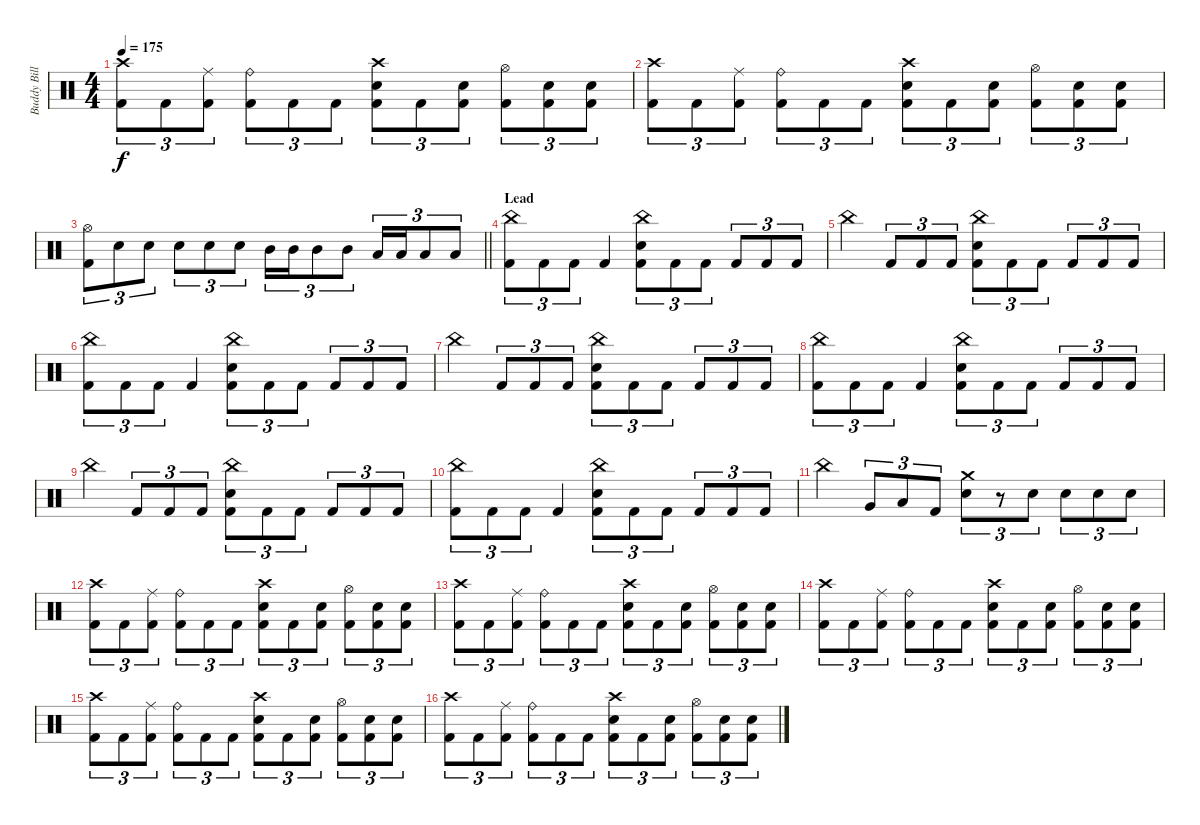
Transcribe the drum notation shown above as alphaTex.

\track ("Buddy Bill" "Buddy Bill") {instrument percussion}
\staff {score}
\articulation defaults
\ts (4 4)
\tempo 175
\clef neutral
\ks c
("Crash high (hit)" "Kick (hit) 2").8{tu (3 2) dy f} "Kick (hit) 2".8{tu (3 2)} ("Ride (middle)" "Kick (hit) 2").8{tu (3 2)} ("Ride (bell)" "Kick (hit) 2").8{tu (3 2)} "Kick (hit) 2".8{tu (3 2)} "Kick (hit) 2".8{tu (3 2)} ("Crash high (hit)" "Snare (hit) 2" "Kick (hit) 2").8{tu (3 2)} "Kick (hit) 2".8{tu (3 2)} ("Snare (hit) 2" "Kick (hit) 2").8{tu (3 2)} ("Hi-Hat (open)" "Kick (hit) 2").8{tu (3 2)} ("Snare (hit) 2" "Kick (hit) 2").8{tu (3 2)} ("Snare (hit) 2" "Kick (hit) 2").8{tu (3 2)} |
("Crash high (hit)" "Kick (hit) 2").8{tu (3 2)} "Kick (hit) 2".8{tu (3 2)} ("Ride (middle)" "Kick (hit) 2").8{tu (3 2)} ("Ride (bell)" "Kick (hit) 2").8{tu (3 2)} "Kick (hit) 2".8{tu (3 2)} "Kick (hit) 2".8{tu (3 2)} ("Crash high (hit)" "Snare (hit) 2" "Kick (hit) 2").8{tu (3 2)} "Kick (hit) 2".8{tu (3 2)} ("Snare (hit) 2" "Kick (hit) 2").8{tu (3 2)} ("Hi-Hat (open)" "Kick (hit) 2").8{tu (3 2)} ("Snare (hit) 2" "Kick (hit) 2").8{tu (3 2)} ("Snare (hit) 2" "Kick (hit) 2").8{tu (3 2)} |
\barLineRight lightlight
("Hi-Hat (open)" "Kick (hit) 2").8{tu (3 2)} "Snare (hit) 2".8{tu (3 2)} "Snare (hit) 2".8{tu (3 2)} "Snare (hit) 2".8{tu (3 2)} "Snare (hit) 2".8{tu (3 2)} "Snare (hit) 2".8{tu (3 2)} "Mid Tom (hit)".16{tu (3 2)} "Mid Tom (hit)".16{tu (3 2)} "Mid Tom (hit)".8{tu (3 2)} "Mid Tom (hit)".8{tu (3 2)} "Low Tom (hit)".16{tu (3 2)} "Low Tom (hit)".16{tu (3 2)} "Low Tom (hit)".8{tu (3 2)} "Low Tom (hit)".8{tu (3 2)} |
\section ("" "Lead")
("China (hit)" "Kick (hit) 2").8{tu (3 2)} "Kick (hit) 2".8{tu (3 2)} "Kick (hit) 2".8{tu (3 2)} "Kick (hit) 2".4 ("China (hit)" "Snare (hit) 2" "Kick (hit) 2").8{tu (3 2)} "Kick (hit) 2".8{tu (3 2)} "Kick (hit) 2".8{tu (3 2)} "Kick (hit) 2".8{tu (3 2)} "Kick (hit) 2".8{tu (3 2)} "Kick (hit) 2".8{tu (3 2)} |
"China (hit)".4 "Kick (hit) 2".8{tu (3 2)} "Kick (hit) 2".8{tu (3 2)} "Kick (hit) 2".8{tu (3 2)} ("China (hit)" "Snare (hit) 2" "Kick (hit) 2").8{tu (3 2)} "Kick (hit) 2".8{tu (3 2)} "Kick (hit) 2".8{tu (3 2)} "Kick (hit) 2".8{tu (3 2)} "Kick (hit) 2".8{tu (3 2)} "Kick (hit) 2".8{tu (3 2)} |
("China (hit)" "Kick (hit) 2").8{tu (3 2)} "Kick (hit) 2".8{tu (3 2)} "Kick (hit) 2".8{tu (3 2)} "Kick (hit) 2".4 ("China (hit)" "Snare (hit) 2" "Kick (hit) 2").8{tu (3 2)} "Kick (hit) 2".8{tu (3 2)} "Kick (hit) 2".8{tu (3 2)} "Kick (hit) 2".8{tu (3 2)} "Kick (hit) 2".8{tu (3 2)} "Kick (hit) 2".8{tu (3 2)} |
"China (hit)".4 "Kick (hit) 2".8{tu (3 2)} "Kick (hit) 2".8{tu (3 2)} "Kick (hit) 2".8{tu (3 2)} ("China (hit)" "Snare (hit) 2" "Kick (hit) 2").8{tu (3 2)} "Kick (hit) 2".8{tu (3 2)} "Kick (hit) 2".8{tu (3 2)} "Kick (hit) 2".8{tu (3 2)} "Kick (hit) 2".8{tu (3 2)} "Kick (hit) 2".8{tu (3 2)} |
("China (hit)" "Kick (hit) 2").8{tu (3 2)} "Kick (hit) 2".8{tu (3 2)} "Kick (hit) 2".8{tu (3 2)} "Kick (hit) 2".4 ("China (hit)" "Snare (hit) 2" "Kick (hit) 2").8{tu (3 2)} "Kick (hit) 2".8{tu (3 2)} "Kick (hit) 2".8{tu (3 2)} "Kick (hit) 2".8{tu (3 2)} "Kick (hit) 2".8{tu (3 2)} "Kick (hit) 2".8{tu (3 2)} |
"China (hit)".4 "Kick (hit) 2".8{tu (3 2)} "Kick (hit) 2".8{tu (3 2)} "Kick (hit) 2".8{tu (3 2)} ("China (hit)" "Snare (hit) 2" "Kick (hit) 2").8{tu (3 2)} "Kick (hit) 2".8{tu (3 2)} "Kick (hit) 2".8{tu (3 2)} "Kick (hit) 2".8{tu (3 2)} "Kick (hit) 2".8{tu (3 2)} "Kick (hit) 2".8{tu (3 2)} |
("China (hit)" "Kick (hit) 2").8{tu (3 2)} "Kick (hit) 2".8{tu (3 2)} "Kick (hit) 2".8{tu (3 2)} "Kick (hit) 2".4 ("China (hit)" "Snare (hit) 2" "Kick (hit) 2").8{tu (3 2)} "Kick (hit) 2".8{tu (3 2)} "Kick (hit) 2".8{tu (3 2)} "Kick (hit) 2".8{tu (3 2)} "Kick (hit) 2".8{tu (3 2)} "Kick (hit) 2".8{tu (3 2)} |
"China (hit)".4 "Very Low Tom (hit)".8{tu (3 2)} "Low Tom (hit)".8{tu (3 2)} "Kick (hit) 2".8{tu (3 2)} ("Crash medium (hit)" "Snare (hit) 2").8{tu (3 2)} r.8{tu (3 2)} "Snare (hit) 2".8{tu (3 2)} "Snare (hit) 2".8{tu (3 2)} "Snare (hit) 2".8{tu (3 2)} "Snare (hit) 2".8{tu (3 2)} |
("Crash high (hit)" "Kick (hit) 2").8{tu (3 2)} "Kick (hit) 2".8{tu (3 2)} ("Ride (middle)" "Kick (hit) 2").8{tu (3 2)} ("Ride (bell)" "Kick (hit) 2").8{tu (3 2)} "Kick (hit) 2".8{tu (3 2)} "Kick (hit) 2".8{tu (3 2)} ("Crash high (hit)" "Snare (hit) 2" "Kick (hit) 2").8{tu (3 2)} "Kick (hit) 2".8{tu (3 2)} ("Snare (hit) 2" "Kick (hit) 2").8{tu (3 2)} ("Hi-Hat (open)" "Kick (hit) 2").8{tu (3 2)} ("Snare (hit) 2" "Kick (hit) 2").8{tu (3 2)} ("Snare (hit) 2" "Kick (hit) 2").8{tu (3 2)} |
("Crash high (hit)" "Kick (hit) 2").8{tu (3 2)} "Kick (hit) 2".8{tu (3 2)} ("Ride (middle)" "Kick (hit) 2").8{tu (3 2)} ("Ride (bell)" "Kick (hit) 2").8{tu (3 2)} "Kick (hit) 2".8{tu (3 2)} "Kick (hit) 2".8{tu (3 2)} ("Crash high (hit)" "Snare (hit) 2" "Kick (hit) 2").8{tu (3 2)} "Kick (hit) 2".8{tu (3 2)} ("Snare (hit) 2" "Kick (hit) 2").8{tu (3 2)} ("Hi-Hat (open)" "Kick (hit) 2").8{tu (3 2)} ("Snare (hit) 2" "Kick (hit) 2").8{tu (3 2)} ("Snare (hit) 2" "Kick (hit) 2").8{tu (3 2)} |
("Crash high (hit)" "Kick (hit) 2").8{tu (3 2)} "Kick (hit) 2".8{tu (3 2)} ("Ride (middle)" "Kick (hit) 2").8{tu (3 2)} ("Ride (bell)" "Kick (hit) 2").8{tu (3 2)} "Kick (hit) 2".8{tu (3 2)} "Kick (hit) 2".8{tu (3 2)} ("Crash high (hit)" "Snare (hit) 2" "Kick (hit) 2").8{tu (3 2)} "Kick (hit) 2".8{tu (3 2)} ("Snare (hit) 2" "Kick (hit) 2").8{tu (3 2)} ("Hi-Hat (open)" "Kick (hit) 2").8{tu (3 2)} ("Snare (hit) 2" "Kick (hit) 2").8{tu (3 2)} ("Snare (hit) 2" "Kick (hit) 2").8{tu (3 2)} |
("Crash high (hit)" "Kick (hit) 2").8{tu (3 2)} "Kick (hit) 2".8{tu (3 2)} ("Ride (middle)" "Kick (hit) 2").8{tu (3 2)} ("Ride (bell)" "Kick (hit) 2").8{tu (3 2)} "Kick (hit) 2".8{tu (3 2)} "Kick (hit) 2".8{tu (3 2)} ("Crash high (hit)" "Snare (hit) 2" "Kick (hit) 2").8{tu (3 2)} "Kick (hit) 2".8{tu (3 2)} ("Snare (hit) 2" "Kick (hit) 2").8{tu (3 2)} ("Hi-Hat (open)" "Kick (hit) 2").8{tu (3 2)} ("Snare (hit) 2" "Kick (hit) 2").8{tu (3 2)} ("Snare (hit) 2" "Kick (hit) 2").8{tu (3 2)} |
("Crash high (hit)" "Kick (hit) 2").8{tu (3 2)} "Kick (hit) 2".8{tu (3 2)} ("Ride (middle)" "Kick (hit) 2").8{tu (3 2)} ("Ride (bell)" "Kick (hit) 2").8{tu (3 2)} "Kick (hit) 2".8{tu (3 2)} "Kick (hit) 2".8{tu (3 2)} ("Crash high (hit)" "Snare (hit) 2" "Kick (hit) 2").8{tu (3 2)} "Kick (hit) 2".8{tu (3 2)} ("Snare (hit) 2" "Kick (hit) 2").8{tu (3 2)} ("Hi-Hat (open)" "Kick (hit) 2").8{tu (3 2)} ("Snare (hit) 2" "Kick (hit) 2").8{tu (3 2)} ("Snare (hit) 2" "Kick (hit) 2").8{tu (3 2)}
